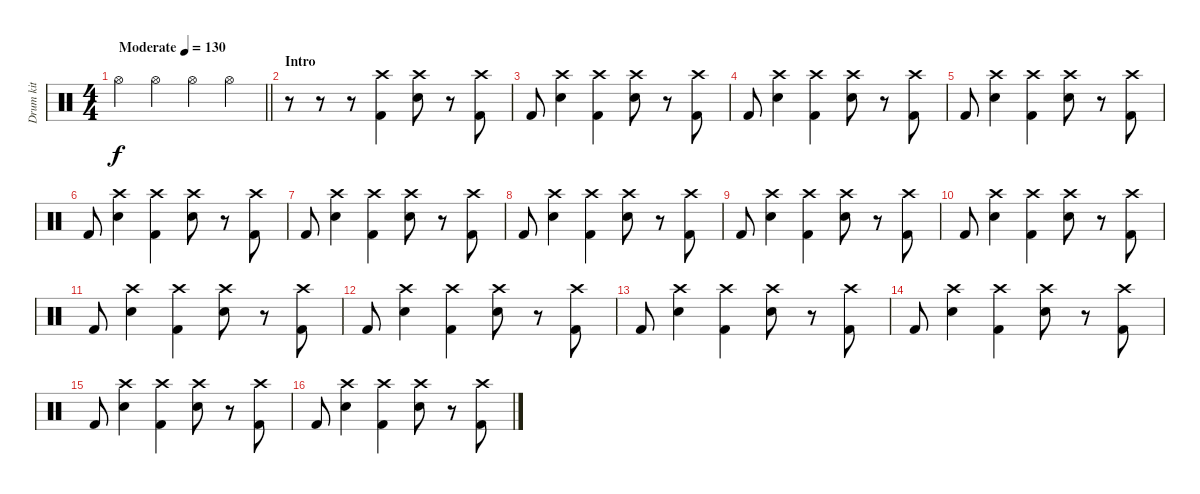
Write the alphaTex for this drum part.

\track ("Drum kit" "Drum kit") {instrument percussion}
\staff {score}
\articulation defaults
\ts (4 4)
\tempo (130 "Moderate")
\clef neutral
\barLineRight lightlight
\ks c "Hi-Hat (open)".4{dy f} "Hi-Hat (open)".4 "Hi-Hat (open)".4 "Hi-Hat (open)".4
|
\section ("" "Intro")
r.8 r.8 r.8 ("Crash high (hit)" "Kick (hit) 2").4 ("Crash high (hit)" "Electric Snare (hit)").8 r.8 ("Crash high (hit)" "Kick (hit) 2").8 |
"Kick (hit) 2".8 ("Crash high (hit)" "Electric Snare (hit)").4 ("Crash high (hit)" "Kick (hit) 2").4 ("Crash high (hit)" "Electric Snare (hit)").8 r.8 ("Crash high (hit)" "Kick (hit) 2").8 |
"Kick (hit) 2".8 ("Crash high (hit)" "Electric Snare (hit)").4 ("Crash high (hit)" "Kick (hit) 2").4 ("Crash high (hit)" "Electric Snare (hit)").8 r.8 ("Crash high (hit)" "Kick (hit) 2").8 |
"Kick (hit) 2".8 ("Crash high (hit)" "Electric Snare (hit)").4 ("Crash high (hit)" "Kick (hit) 2").4 ("Crash high (hit)" "Electric Snare (hit)").8 r.8 ("Crash high (hit)" "Kick (hit) 2").8 |
"Kick (hit) 2".8 ("Crash high (hit)" "Electric Snare (hit)").4 ("Crash high (hit)" "Kick (hit) 2").4 ("Crash high (hit)" "Electric Snare (hit)").8 r.8 ("Crash high (hit)" "Kick (hit) 2").8 |
"Kick (hit) 2".8 ("Crash high (hit)" "Electric Snare (hit)").4 ("Crash high (hit)" "Kick (hit) 2").4 ("Crash high (hit)" "Electric Snare (hit)").8 r.8 ("Crash high (hit)" "Kick (hit) 2").8 |
"Kick (hit) 2".8 ("Crash high (hit)" "Electric Snare (hit)").4 ("Crash high (hit)" "Kick (hit) 2").4 ("Crash high (hit)" "Electric Snare (hit)").8 r.8 ("Crash high (hit)" "Kick (hit) 2").8 |
"Kick (hit) 2".8 ("Crash high (hit)" "Electric Snare (hit)").4 ("Crash high (hit)" "Kick (hit) 2").4 ("Crash high (hit)" "Electric Snare (hit)").8 r.8 ("Crash high (hit)" "Kick (hit) 2").8 |
"Kick (hit) 2".8 ("Crash high (hit)" "Electric Snare (hit)").4 ("Crash high (hit)" "Kick (hit) 2").4 ("Crash high (hit)" "Electric Snare (hit)").8 r.8 ("Crash high (hit)" "Kick (hit) 2").8 |
"Kick (hit) 2".8 ("Crash high (hit)" "Electric Snare (hit)").4 ("Crash high (hit)" "Kick (hit) 2").4 ("Crash high (hit)" "Electric Snare (hit)").8 r.8 ("Crash high (hit)" "Kick (hit) 2").8 |
"Kick (hit) 2".8 ("Crash high (hit)" "Electric Snare (hit)").4 ("Crash high (hit)" "Kick (hit) 2").4 ("Crash high (hit)" "Electric Snare (hit)").8 r.8 ("Crash high (hit)" "Kick (hit) 2").8 |
"Kick (hit) 2".8 ("Crash high (hit)" "Electric Snare (hit)").4 ("Crash high (hit)" "Kick (hit) 2").4 ("Crash high (hit)" "Electric Snare (hit)").8 r.8 ("Crash high (hit)" "Kick (hit) 2").8 |
"Kick (hit) 2".8 ("Crash high (hit)" "Electric Snare (hit)").4 ("Crash high (hit)" "Kick (hit) 2").4 ("Crash high (hit)" "Electric Snare (hit)").8 r.8 ("Crash high (hit)" "Kick (hit) 2").8 |
"Kick (hit) 2".8 ("Crash high (hit)" "Electric Snare (hit)").4 ("Crash high (hit)" "Kick (hit) 2").4 ("Crash high (hit)" "Electric Snare (hit)").8 r.8 ("Crash high (hit)" "Kick (hit) 2").8 |
"Kick (hit) 2".8 ("Crash high (hit)" "Electric Snare (hit)").4 ("Crash high (hit)" "Kick (hit) 2").4 ("Crash high (hit)" "Electric Snare (hit)").8 r.8 ("Crash high (hit)" "Kick (hit) 2").8
